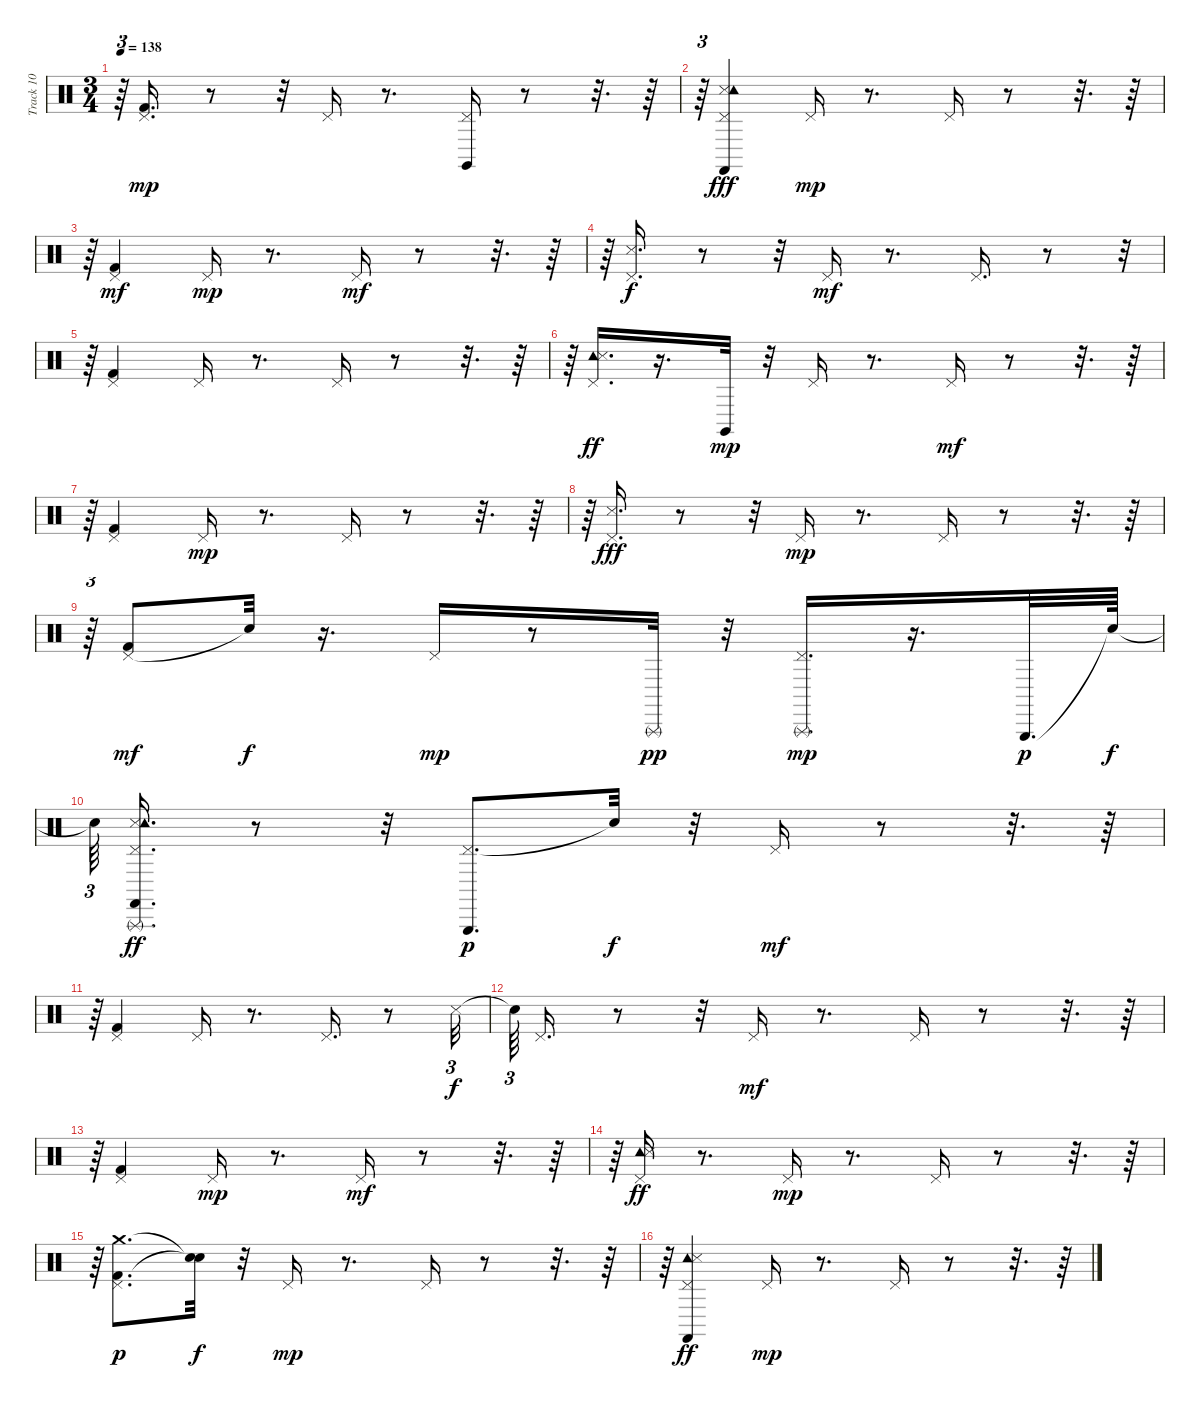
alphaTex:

\track ("Track 10" "Track 10") {instrument percussion}
\staff {score}
\articulation defaults
\ts (3 4)
\tempo 138
\clef neutral
\ks c
r.64{tu (3 2) dy mp} ("Pedal Hi-Hat (hit)" "Kick (hit) 2").16{d} r.8 r.32 "Pedal Hi-Hat (hit)".16 r.8{d} ("Claves (hit)" "Pedal Hi-Hat (hit)").16 r.8 r.32{d} r.64 |
r.64{tu (3 2)} ("Snare (side stick) 3" "Tambourine (hit)" "Pedal Hi-Hat (hit)" "Castanets (hit)").4{dy fff} "Pedal Hi-Hat (hit)".16{dy mp} r.8{d} "Pedal Hi-Hat (hit)".16 r.8 r.32{d} r.64 |
r.64{tu (3 2)} ("Kick (hit) 2" "Pedal Hi-Hat (hit)").4{dy mf} "Pedal Hi-Hat (hit)".16{dy mp} r.8{d} "Pedal Hi-Hat (hit)".16{dy mf} r.8 r.32{d} r.64 |
r.64{tu (3 2)} ("Pedal Hi-Hat (hit)" "Snare (side stick) 3").16{d dy f} r.8 r.32 "Pedal Hi-Hat (hit)".16{dy mf} r.8{d} "Pedal Hi-Hat (hit)".16{d} r.8 r.32{tu (3 2)} |
r.64{tu (3 2)} ("Pedal Hi-Hat (hit)" "Kick (hit) 2").4 "Pedal Hi-Hat (hit)".16 r.8{d} "Pedal Hi-Hat (hit)".16 r.8 r.32{d} r.64 |
r.64{tu (3 2)} ("Tambourine (hit)" "Pedal Hi-Hat (hit)" "Snare (side stick) 3").16{d dy ff} r.16{d} "Claves (hit)".32{dy mp} r.32 "Pedal Hi-Hat (hit)".16 r.8{d} "Pedal Hi-Hat (hit)".16{dy mf} r.8 r.32{d} r.64 |
r.64{tu (3 2)} ("Kick (hit) 2" "Pedal Hi-Hat (hit)").4 "Pedal Hi-Hat (hit)".16{dy mp} r.8{d} "Pedal Hi-Hat (hit)".16 r.8 r.32{d} r.64 |
r.64{tu (3 2)} ("Pedal Hi-Hat (hit)" "Snare (side stick) 3").16{d dy fff} r.8 r.32 "Pedal Hi-Hat (hit)".16{dy mp} r.8{d} "Pedal Hi-Hat (hit)".16 r.8 r.32{d} r.64 |
r.64{tu (3 2)} ("Pedal Hi-Hat (hit)" "Kick (hit) 2").8{dy mf} "Snare (hit)"{t}.32{dy f} r.16{d} "Pedal Hi-Hat (hit)".16{dy mp} r.8 "Triangle (rnute)".32{dy pp} r.32 ("Triangle (rnute)" "Pedal Hi-Hat (hit)").16{d dy mp} r.16{d} "Triangle (hit)".32{d dy p} "Snare (hit)"{t}.64{dy f} |
"Snare (hit)"{t}.64{tu (3 2)} ("Pedal Hi-Hat (hit)" "Triangle (rnute)" "Snare (side stick) 3" "Castanets (hit)" "Tambourine (hit)").16{d dy ff} r.8 r.32 ("Pedal Hi-Hat (hit)" "Triangle (hit)").8{d dy p} "Snare (hit)"{t}.32{dy f} r.32 "Pedal Hi-Hat (hit)".16{dy mf} r.8 r.32{d} r.64 |
r.64{tu (3 2)} ("Kick (hit) 2" "Pedal Hi-Hat (hit)").4 "Pedal Hi-Hat (hit)".16 r.8{d} "Pedal Hi-Hat (hit)".16{d} r.8 "Snare (side stick) 3".32{tu (3 2) dy f} |
"Snare (hit)"{t}.64{tu (3 2)} "Pedal Hi-Hat (hit)".16{d} r.8 r.32 "Pedal Hi-Hat (hit)".16{dy mf} r.8{d} "Pedal Hi-Hat (hit)".16 r.8 r.32{d} r.64 |
r.64{tu (3 2)} ("Pedal Hi-Hat (hit)" "Kick (hit) 2").4 "Pedal Hi-Hat (hit)".16{dy mp} r.8{d} "Pedal Hi-Hat (hit)".16{dy mf} r.8 r.32{d} r.64 |
r.64{tu (3 2)} ("Tambourine (hit)" "Pedal Hi-Hat (hit)" "Snare (side stick) 3").16{dy ff} r.8{d} "Pedal Hi-Hat (hit)".16{dy mp} r.8{d} "Pedal Hi-Hat (hit)".16 r.8 r.32{d} r.64 |
r.64{tu (3 2)} ("Crash medium (hit)" "Kick (hit) 2" "Pedal Hi-Hat (hit)").8{d dy p} ("Snare (hit)"{t} "Snare (hit)"{t}).32{dy f} r.32 "Pedal Hi-Hat (hit)".16{dy mp} r.8{d} "Pedal Hi-Hat (hit)".16 r.8 r.32{d} r.64 |
r.64{tu (3 2)} ("Castanets (hit)" "Tambourine (hit)" "Snare (side stick) 3" "Pedal Hi-Hat (hit)").4{dy ff} "Pedal Hi-Hat (hit)".16{dy mp} r.8{d} "Pedal Hi-Hat (hit)".16 r.8 r.32{d} r.64
